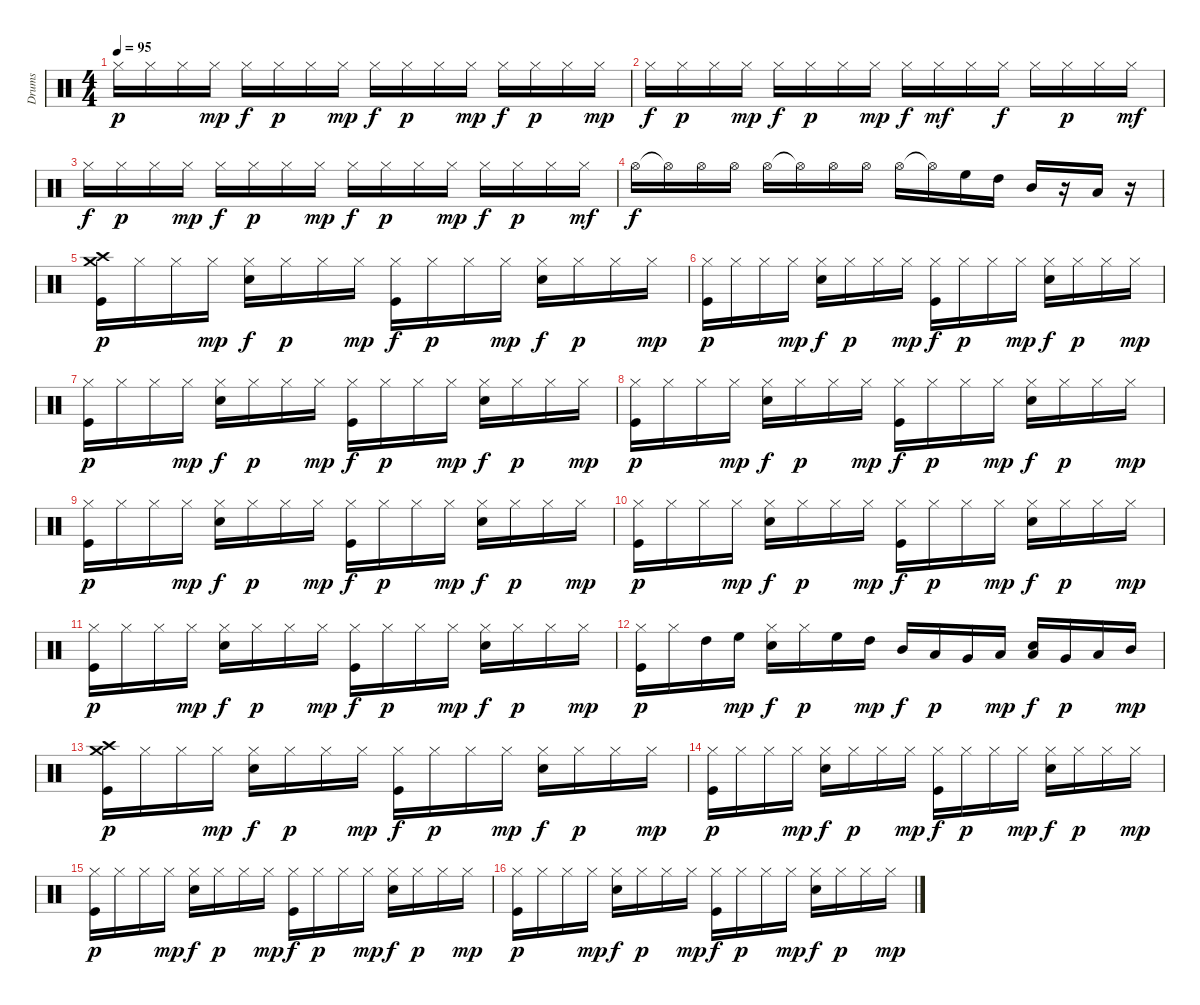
\track ("Drums" "Drums") {instrument percussion}
\staff {score}
\articulation defaults
\ts (4 4)
\tempo 95
\clef neutral
\ks c "Hi-Hat (closed)".16{dy p} "Hi-Hat (closed)".16 "Hi-Hat (closed)".16 "Hi-Hat (closed)".16{dy mp} "Hi-Hat (closed)".16{dy f} "Hi-Hat (closed)".16{dy p} "Hi-Hat (closed)".16 "Hi-Hat (closed)".16{dy mp} "Hi-Hat (closed)".16{dy f} "Hi-Hat (closed)".16{dy p} "Hi-Hat (closed)".16 "Hi-Hat (closed)".16{dy mp} "Hi-Hat (closed)".16{dy f} "Hi-Hat (closed)".16{dy p} "Hi-Hat (closed)".16 "Hi-Hat (closed)".16{dy mp}
|
"Hi-Hat (closed)".16{dy f} "Hi-Hat (closed)".16{dy p} "Hi-Hat (closed)".16 "Hi-Hat (closed)".16{dy mp} "Hi-Hat (closed)".16{dy f} "Hi-Hat (closed)".16{dy p} "Hi-Hat (closed)".16 "Hi-Hat (closed)".16{dy mp} "Hi-Hat (closed)".16{dy f} "Hi-Hat (closed)".16{dy mf} "Hi-Hat (closed)".16 "Hi-Hat (closed)".16{dy f} "Hi-Hat (closed)".16 "Hi-Hat (closed)".16{dy p} "Hi-Hat (closed)".16 "Hi-Hat (closed)".16{dy mf} |
"Hi-Hat (closed)".16{dy f} "Hi-Hat (closed)".16{dy p} "Hi-Hat (closed)".16 "Hi-Hat (closed)".16{dy mp} "Hi-Hat (closed)".16{dy f} "Hi-Hat (closed)".16{dy p} "Hi-Hat (closed)".16 "Hi-Hat (closed)".16{dy mp} "Hi-Hat (closed)".16{dy f} "Hi-Hat (closed)".16{dy p} "Hi-Hat (closed)".16 "Hi-Hat (closed)".16{dy mp} "Hi-Hat (closed)".16{dy f} "Hi-Hat (closed)".16{dy p} "Hi-Hat (closed)".16 "Hi-Hat (closed)".16{dy mf} |
"Hi-Hat (open)".16{dy f} "Hi-Hat (open)"{t}.16 "Hi-Hat (open)".16 "Hi-Hat (open)".16 "Hi-Hat (open)".16 "Hi-Hat (open)"{t}.16 "Hi-Hat (open)".16 "Hi-Hat (open)".16 "Hi-Hat (open)".16 "Hi-Hat (open)"{t}.16 "High Floor Tom (hit)".16 "High Tom (hit)".16 "Mid Tom (hit)".16 r.16 "Low Tom (hit)".16 r.16 |
("Crash medium (hit)" "Crash high (hit)" "Kick (hit)").16{dy p} "Hi-Hat (closed)".16 "Hi-Hat (closed)".16 "Hi-Hat (closed)".16{dy mp} ("Hi-Hat (closed)" "Snare (hit) 2").16{dy f} "Hi-Hat (closed)".16{dy p} "Hi-Hat (closed)".16 "Hi-Hat (closed)".16{dy mp} ("Hi-Hat (closed)" "Kick (hit)").16{dy f} "Hi-Hat (closed)".16{dy p} "Hi-Hat (closed)".16 "Hi-Hat (closed)".16{dy mp} ("Hi-Hat (closed)" "Snare (hit) 2").16{dy f} "Hi-Hat (closed)".16{dy p} "Hi-Hat (closed)".16 "Hi-Hat (closed)".16{dy mp} |
("Hi-Hat (closed)" "Kick (hit)").16{dy p} "Hi-Hat (closed)".16 "Hi-Hat (closed)".16 "Hi-Hat (closed)".16{dy mp} ("Hi-Hat (closed)" "Snare (hit) 2").16{dy f} "Hi-Hat (closed)".16{dy p} "Hi-Hat (closed)".16 "Hi-Hat (closed)".16{dy mp} ("Hi-Hat (closed)" "Kick (hit)").16{dy f} "Hi-Hat (closed)".16{dy p} "Hi-Hat (closed)".16 "Hi-Hat (closed)".16{dy mp} ("Hi-Hat (closed)" "Snare (hit) 2").16{dy f} "Hi-Hat (closed)".16{dy p} "Hi-Hat (closed)".16 "Hi-Hat (closed)".16{dy mp} |
("Hi-Hat (closed)" "Kick (hit)").16{dy p} "Hi-Hat (closed)".16 "Hi-Hat (closed)".16 "Hi-Hat (closed)".16{dy mp} ("Hi-Hat (closed)" "Snare (hit) 2").16{dy f} "Hi-Hat (closed)".16{dy p} "Hi-Hat (closed)".16 "Hi-Hat (closed)".16{dy mp} ("Hi-Hat (closed)" "Kick (hit)").16{dy f} "Hi-Hat (closed)".16{dy p} "Hi-Hat (closed)".16 "Hi-Hat (closed)".16{dy mp} ("Hi-Hat (closed)" "Snare (hit) 2").16{dy f} "Hi-Hat (closed)".16{dy p} "Hi-Hat (closed)".16 "Hi-Hat (closed)".16{dy mp} |
("Hi-Hat (closed)" "Kick (hit)").16{dy p} "Hi-Hat (closed)".16 "Hi-Hat (closed)".16 "Hi-Hat (closed)".16{dy mp} ("Hi-Hat (closed)" "Snare (hit) 2").16{dy f} "Hi-Hat (closed)".16{dy p} "Hi-Hat (closed)".16 "Hi-Hat (closed)".16{dy mp} ("Hi-Hat (closed)" "Kick (hit)").16{dy f} "Hi-Hat (closed)".16{dy p} "Hi-Hat (closed)".16 "Hi-Hat (closed)".16{dy mp} ("Hi-Hat (closed)" "Snare (hit) 2").16{dy f} "Hi-Hat (closed)".16{dy p} "Hi-Hat (closed)".16 "Hi-Hat (closed)".16{dy mp} |
("Hi-Hat (closed)" "Kick (hit)").16{dy p} "Hi-Hat (closed)".16 "Hi-Hat (closed)".16 "Hi-Hat (closed)".16{dy mp} ("Hi-Hat (closed)" "Snare (hit) 2").16{dy f} "Hi-Hat (closed)".16{dy p} "Hi-Hat (closed)".16 "Hi-Hat (closed)".16{dy mp} ("Hi-Hat (closed)" "Kick (hit)").16{dy f} "Hi-Hat (closed)".16{dy p} "Hi-Hat (closed)".16 "Hi-Hat (closed)".16{dy mp} ("Hi-Hat (closed)" "Snare (hit) 2").16{dy f} "Hi-Hat (closed)".16{dy p} "Hi-Hat (closed)".16 "Hi-Hat (closed)".16{dy mp} |
("Hi-Hat (closed)" "Kick (hit)").16{dy p} "Hi-Hat (closed)".16 "Hi-Hat (closed)".16 "Hi-Hat (closed)".16{dy mp} ("Hi-Hat (closed)" "Snare (hit) 2").16{dy f} "Hi-Hat (closed)".16{dy p} "Hi-Hat (closed)".16 "Hi-Hat (closed)".16{dy mp} ("Hi-Hat (closed)" "Kick (hit)").16{dy f} "Hi-Hat (closed)".16{dy p} "Hi-Hat (closed)".16 "Hi-Hat (closed)".16{dy mp} ("Hi-Hat (closed)" "Snare (hit) 2").16{dy f} "Hi-Hat (closed)".16{dy p} "Hi-Hat (closed)".16 "Hi-Hat (closed)".16{dy mp} |
("Hi-Hat (closed)" "Kick (hit)").16{dy p} "Hi-Hat (closed)".16 "Hi-Hat (closed)".16 "Hi-Hat (closed)".16{dy mp} ("Hi-Hat (closed)" "Snare (hit) 2").16{dy f} "Hi-Hat (closed)".16{dy p} "Hi-Hat (closed)".16 "Hi-Hat (closed)".16{dy mp} ("Hi-Hat (closed)" "Kick (hit)").16{dy f} "Hi-Hat (closed)".16{dy p} "Hi-Hat (closed)".16 "Hi-Hat (closed)".16{dy mp} ("Hi-Hat (closed)" "Snare (hit) 2").16{dy f} "Hi-Hat (closed)".16{dy p} "Hi-Hat (closed)".16 "Hi-Hat (closed)".16{dy mp} |
("Hi-Hat (closed)" "Kick (hit)").16{dy p} "Hi-Hat (closed)".16 "High Tom (hit)".16 "High Floor Tom (hit)".16{dy mp} ("Hi-Hat (closed)" "Snare (hit) 2").16{dy f} "Hi-Hat (closed)".16{dy p} "High Floor Tom (hit)".16 "High Tom (hit)".16{dy mp} "Mid Tom (hit)".16{dy f} "Low Tom (hit)".16{dy p} "Very Low Tom (hit)".16 "Low Floor Tom (hit)".16{dy mp} ("Low Floor Tom (hit)" "Snare (hit) 2").16{dy f} "Very Low Tom (hit)".16{dy p} "Low Tom (hit)".16 "Mid Tom (hit)".16{dy mp} |
("Crash medium (hit)" "Crash high (hit)" "Kick (hit)").16{dy p} "Hi-Hat (closed)".16 "Hi-Hat (closed)".16 "Hi-Hat (closed)".16{dy mp} ("Hi-Hat (closed)" "Snare (hit) 2").16{dy f} "Hi-Hat (closed)".16{dy p} "Hi-Hat (closed)".16 "Hi-Hat (closed)".16{dy mp} ("Hi-Hat (closed)" "Kick (hit)").16{dy f} "Hi-Hat (closed)".16{dy p} "Hi-Hat (closed)".16 "Hi-Hat (closed)".16{dy mp} ("Hi-Hat (closed)" "Snare (hit) 2").16{dy f} "Hi-Hat (closed)".16{dy p} "Hi-Hat (closed)".16 "Hi-Hat (closed)".16{dy mp} |
("Hi-Hat (closed)" "Kick (hit)").16{dy p} "Hi-Hat (closed)".16 "Hi-Hat (closed)".16 "Hi-Hat (closed)".16{dy mp} ("Hi-Hat (closed)" "Snare (hit) 2").16{dy f} "Hi-Hat (closed)".16{dy p} "Hi-Hat (closed)".16 "Hi-Hat (closed)".16{dy mp} ("Hi-Hat (closed)" "Kick (hit)").16{dy f} "Hi-Hat (closed)".16{dy p} "Hi-Hat (closed)".16 "Hi-Hat (closed)".16{dy mp} ("Hi-Hat (closed)" "Snare (hit) 2").16{dy f} "Hi-Hat (closed)".16{dy p} "Hi-Hat (closed)".16 "Hi-Hat (closed)".16{dy mp} |
("Hi-Hat (closed)" "Kick (hit)").16{dy p} "Hi-Hat (closed)".16 "Hi-Hat (closed)".16 "Hi-Hat (closed)".16{dy mp} ("Hi-Hat (closed)" "Snare (hit) 2").16{dy f} "Hi-Hat (closed)".16{dy p} "Hi-Hat (closed)".16 "Hi-Hat (closed)".16{dy mp} ("Hi-Hat (closed)" "Kick (hit)").16{dy f} "Hi-Hat (closed)".16{dy p} "Hi-Hat (closed)".16 "Hi-Hat (closed)".16{dy mp} ("Hi-Hat (closed)" "Snare (hit) 2").16{dy f} "Hi-Hat (closed)".16{dy p} "Hi-Hat (closed)".16 "Hi-Hat (closed)".16{dy mp} |
("Hi-Hat (closed)" "Kick (hit)").16{dy p} "Hi-Hat (closed)".16 "Hi-Hat (closed)".16 "Hi-Hat (closed)".16{dy mp} ("Hi-Hat (closed)" "Snare (hit) 2").16{dy f} "Hi-Hat (closed)".16{dy p} "Hi-Hat (closed)".16 "Hi-Hat (closed)".16{dy mp} ("Hi-Hat (closed)" "Kick (hit)").16{dy f} "Hi-Hat (closed)".16{dy p} "Hi-Hat (closed)".16 "Hi-Hat (closed)".16{dy mp} ("Hi-Hat (closed)" "Snare (hit) 2").16{dy f} "Hi-Hat (closed)".16{dy p} "Hi-Hat (closed)".16 "Hi-Hat (closed)".16{dy mp}
